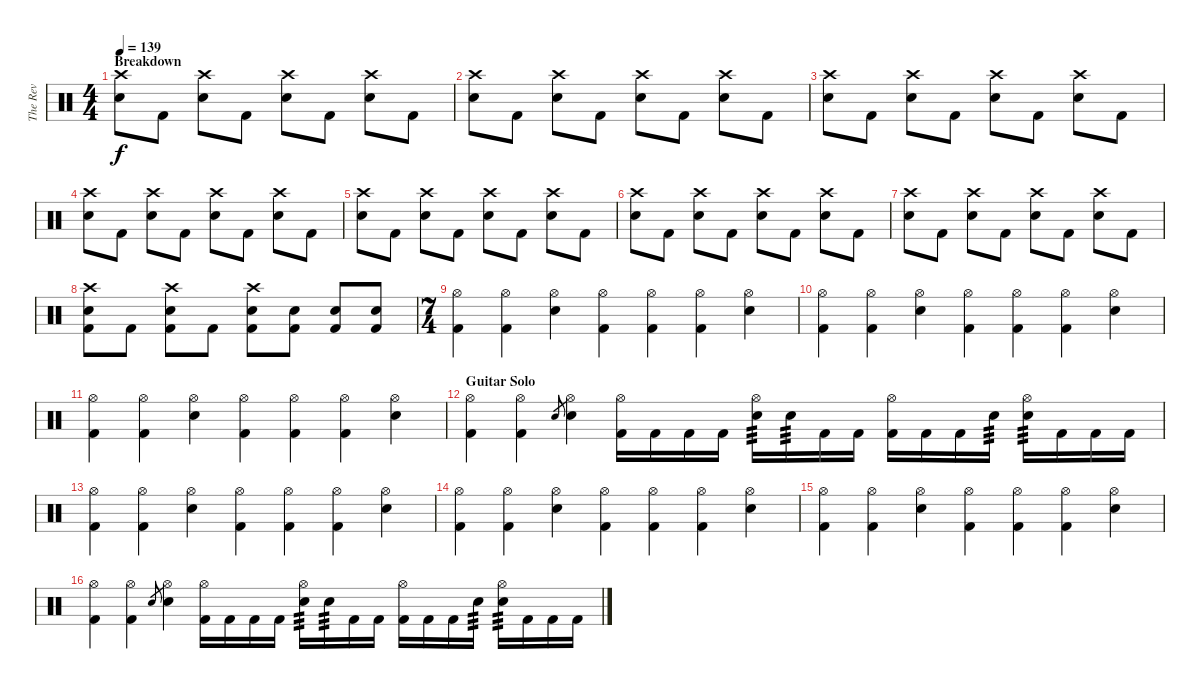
\track ("The Rev" "The Rev") {instrument percussion}
\staff {score}
\articulation defaults
\ts (4 4)
\section ("" "Breakdown")
\tempo 139
\clef neutral
\ks c
("Crash high (hit)" "Electric Snare (hit)").8{dy f} "Kick (hit) 2".8 ("Crash high (hit)" "Electric Snare (hit)").8 "Kick (hit) 2".8 ("Crash high (hit)" "Electric Snare (hit)").8 "Kick (hit) 2".8 ("Crash high (hit)" "Electric Snare (hit)").8 "Kick (hit) 2".8 |
("Crash high (hit)" "Electric Snare (hit)").8 "Kick (hit) 2".8 ("Crash high (hit)" "Electric Snare (hit)").8 "Kick (hit) 2".8 ("Crash high (hit)" "Electric Snare (hit)").8 "Kick (hit) 2".8 ("Crash high (hit)" "Electric Snare (hit)").8 "Kick (hit) 2".8 |
("Crash high (hit)" "Electric Snare (hit)").8 "Kick (hit) 2".8 ("Crash high (hit)" "Electric Snare (hit)").8 "Kick (hit) 2".8 ("Crash high (hit)" "Electric Snare (hit)").8 "Kick (hit) 2".8 ("Crash high (hit)" "Electric Snare (hit)").8 "Kick (hit) 2".8 |
("Crash high (hit)" "Electric Snare (hit)").8 "Kick (hit) 2".8 ("Crash high (hit)" "Electric Snare (hit)").8 "Kick (hit) 2".8 ("Crash high (hit)" "Electric Snare (hit)").8 "Kick (hit) 2".8 ("Crash high (hit)" "Electric Snare (hit)").8 "Kick (hit) 2".8 |
("Crash high (hit)" "Electric Snare (hit)").8 "Kick (hit) 2".8 ("Crash high (hit)" "Electric Snare (hit)").8 "Kick (hit) 2".8 ("Crash high (hit)" "Electric Snare (hit)").8 "Kick (hit) 2".8 ("Crash high (hit)" "Electric Snare (hit)").8 "Kick (hit) 2".8 |
("Crash high (hit)" "Electric Snare (hit)").8 "Kick (hit) 2".8 ("Crash high (hit)" "Electric Snare (hit)").8 "Kick (hit) 2".8 ("Crash high (hit)" "Electric Snare (hit)").8 "Kick (hit) 2".8 ("Crash high (hit)" "Electric Snare (hit)").8 "Kick (hit) 2".8 |
("Crash high (hit)" "Electric Snare (hit)").8 "Kick (hit) 2".8 ("Crash high (hit)" "Electric Snare (hit)").8 "Kick (hit) 2".8 ("Crash high (hit)" "Electric Snare (hit)").8 "Kick (hit) 2".8 ("Crash high (hit)" "Electric Snare (hit)").8 "Kick (hit) 2".8 |
("Crash high (hit)" "Electric Snare (hit)" "Kick (hit) 2").8 "Kick (hit) 2".8 ("Crash high (hit)" "Electric Snare (hit)" "Kick (hit) 2").8 "Kick (hit) 2".8 ("Crash high (hit)" "Electric Snare (hit)" "Kick (hit) 2").8 ("Electric Snare (hit)" "Kick (hit) 2").8 ("Electric Snare (hit)" "Kick (hit) 2").8 ("Electric Snare (hit)" "Kick (hit) 2").8 |
\ts (7 4)
("Hi-Hat (open)" "Kick (hit) 2").4 ("Hi-Hat (open)" "Kick (hit) 2").4 ("Hi-Hat (open)" "Electric Snare (hit)").4 ("Hi-Hat (open)" "Kick (hit) 2").4 ("Hi-Hat (open)" "Kick (hit) 2").4 ("Hi-Hat (open)" "Kick (hit) 2").4 ("Hi-Hat (open)" "Electric Snare (hit)").4 |
("Hi-Hat (open)" "Kick (hit) 2").4 ("Hi-Hat (open)" "Kick (hit) 2").4 ("Hi-Hat (open)" "Electric Snare (hit)").4 ("Hi-Hat (open)" "Kick (hit) 2").4 ("Hi-Hat (open)" "Kick (hit) 2").4 ("Hi-Hat (open)" "Kick (hit) 2").4 ("Hi-Hat (open)" "Electric Snare (hit)").4 |
("Hi-Hat (open)" "Kick (hit) 2").4 ("Hi-Hat (open)" "Kick (hit) 2").4 ("Hi-Hat (open)" "Electric Snare (hit)").4 ("Hi-Hat (open)" "Kick (hit) 2").4 ("Hi-Hat (open)" "Kick (hit) 2").4 ("Hi-Hat (open)" "Kick (hit) 2").4 ("Hi-Hat (open)" "Electric Snare (hit)").4 |
\section ("" "Guitar Solo")
("Hi-Hat (open)" "Kick (hit) 2").4 ("Hi-Hat (open)" "Kick (hit) 2").4 "Electric Snare (hit)".8{gr} ("Hi-Hat (open)" "Electric Snare (hit)").4 ("Hi-Hat (open)" "Kick (hit) 2").16 "Kick (hit) 2".16 "Kick (hit) 2".16 "Kick (hit) 2".16 ("Hi-Hat (open)" "Electric Snare (hit)").16{tp 3} "Electric Snare (hit)".16{tp 3} "Kick (hit) 2".16 "Kick (hit) 2".16 ("Hi-Hat (open)" "Kick (hit) 2").16 "Kick (hit) 2".16 "Kick (hit) 2".16 "Electric Snare (hit)".16{tp 3} ("Hi-Hat (open)" "Electric Snare (hit)").16{tp 3} "Kick (hit) 2".16 "Kick (hit) 2".16 "Kick (hit) 2".16 |
("Hi-Hat (open)" "Kick (hit) 2").4 ("Hi-Hat (open)" "Kick (hit) 2").4 ("Hi-Hat (open)" "Electric Snare (hit)").4 ("Hi-Hat (open)" "Kick (hit) 2").4 ("Hi-Hat (open)" "Kick (hit) 2").4 ("Hi-Hat (open)" "Kick (hit) 2").4 ("Hi-Hat (open)" "Electric Snare (hit)").4 |
("Hi-Hat (open)" "Kick (hit) 2").4 ("Hi-Hat (open)" "Kick (hit) 2").4 ("Hi-Hat (open)" "Electric Snare (hit)").4 ("Hi-Hat (open)" "Kick (hit) 2").4 ("Hi-Hat (open)" "Kick (hit) 2").4 ("Hi-Hat (open)" "Kick (hit) 2").4 ("Hi-Hat (open)" "Electric Snare (hit)").4 |
("Hi-Hat (open)" "Kick (hit) 2").4 ("Hi-Hat (open)" "Kick (hit) 2").4 ("Hi-Hat (open)" "Electric Snare (hit)").4 ("Hi-Hat (open)" "Kick (hit) 2").4 ("Hi-Hat (open)" "Kick (hit) 2").4 ("Hi-Hat (open)" "Kick (hit) 2").4 ("Hi-Hat (open)" "Electric Snare (hit)").4 |
("Hi-Hat (open)" "Kick (hit) 2").4 ("Hi-Hat (open)" "Kick (hit) 2").4 "Electric Snare (hit)".8{gr} ("Hi-Hat (open)" "Electric Snare (hit)").4 ("Hi-Hat (open)" "Kick (hit) 2").16 "Kick (hit) 2".16 "Kick (hit) 2".16 "Kick (hit) 2".16 ("Hi-Hat (open)" "Electric Snare (hit)").16{tp 3} "Electric Snare (hit)".16{tp 3} "Kick (hit) 2".16 "Kick (hit) 2".16 ("Hi-Hat (open)" "Kick (hit) 2").16 "Kick (hit) 2".16 "Kick (hit) 2".16 "Electric Snare (hit)".16{tp 3} ("Hi-Hat (open)" "Electric Snare (hit)").16{tp 3} "Kick (hit) 2".16 "Kick (hit) 2".16 "Kick (hit) 2".16
